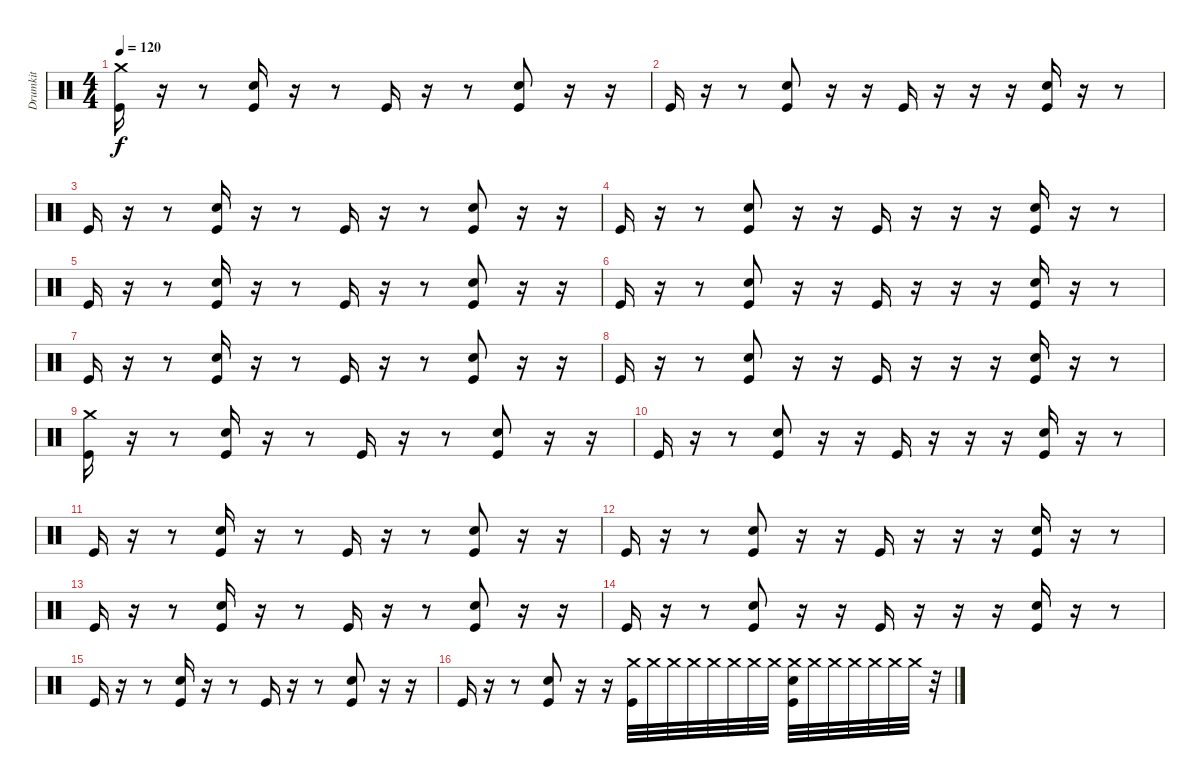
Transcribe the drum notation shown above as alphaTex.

\track ("Drumkit" "Drumkit") {instrument percussion}
\staff {score}
\articulation defaults
\ts (4 4)
\tempo 120
\clef neutral
\ks c
("Crash medium (hit)" "Kick (hit)").16{dy f} r.16 r.8 ("Kick (hit)" "Snare (hit) 2").16 r.16 r.8 "Kick (hit)".16 r.16 r.8 ("Kick (hit)" "Snare (hit) 2").8 r.16 r.16 |
"Kick (hit)".16 r.16 r.8 ("Kick (hit)" "Snare (hit) 2").8 r.16 r.16 "Kick (hit)".16 r.16 r.16 r.16 ("Kick (hit)" "Snare (hit) 2").16 r.16 r.8 |
"Kick (hit)".16 r.16 r.8 ("Kick (hit)" "Snare (hit) 2").16 r.16 r.8 "Kick (hit)".16 r.16 r.8 ("Kick (hit)" "Snare (hit) 2").8 r.16 r.16 |
"Kick (hit)".16 r.16 r.8 ("Kick (hit)" "Snare (hit) 2").8 r.16 r.16 "Kick (hit)".16 r.16 r.16 r.16 ("Kick (hit)" "Snare (hit) 2").16 r.16 r.8 |
"Kick (hit)".16 r.16 r.8 ("Kick (hit)" "Snare (hit) 2").16 r.16 r.8 "Kick (hit)".16 r.16 r.8 ("Kick (hit)" "Snare (hit) 2").8 r.16 r.16 |
"Kick (hit)".16 r.16 r.8 ("Kick (hit)" "Snare (hit) 2").8 r.16 r.16 "Kick (hit)".16 r.16 r.16 r.16 ("Kick (hit)" "Snare (hit) 2").16 r.16 r.8 |
"Kick (hit)".16 r.16 r.8 ("Kick (hit)" "Snare (hit) 2").16 r.16 r.8 "Kick (hit)".16 r.16 r.8 ("Kick (hit)" "Snare (hit) 2").8 r.16 r.16 |
"Kick (hit)".16 r.16 r.8 ("Kick (hit)" "Snare (hit) 2").8 r.16 r.16 "Kick (hit)".16 r.16 r.16 r.16 ("Kick (hit)" "Snare (hit) 2").16 r.16 r.8 |
("Kick (hit)" "Crash medium (hit)").16 r.16 r.8 ("Kick (hit)" "Snare (hit) 2").16 r.16 r.8 "Kick (hit)".16 r.16 r.8 ("Kick (hit)" "Snare (hit) 2").8 r.16 r.16 |
"Kick (hit)".16 r.16 r.8 ("Kick (hit)" "Snare (hit) 2").8 r.16 r.16 "Kick (hit)".16 r.16 r.16 r.16 ("Kick (hit)" "Snare (hit) 2").16 r.16 r.8 |
"Kick (hit)".16 r.16 r.8 ("Kick (hit)" "Snare (hit) 2").16 r.16 r.8 "Kick (hit)".16 r.16 r.8 ("Kick (hit)" "Snare (hit) 2").8 r.16 r.16 |
"Kick (hit)".16 r.16 r.8 ("Kick (hit)" "Snare (hit) 2").8 r.16 r.16 "Kick (hit)".16 r.16 r.16 r.16 ("Kick (hit)" "Snare (hit) 2").16 r.16 r.8 |
"Kick (hit)".16 r.16 r.8 ("Kick (hit)" "Snare (hit) 2").16 r.16 r.8 "Kick (hit)".16 r.16 r.8 ("Kick (hit)" "Snare (hit) 2").8 r.16 r.16 |
"Kick (hit)".16 r.16 r.8 ("Kick (hit)" "Snare (hit) 2").8 r.16 r.16 "Kick (hit)".16 r.16 r.16 r.16 ("Kick (hit)" "Snare (hit) 2").16 r.16 r.8 |
"Kick (hit)".16 r.16 r.8 ("Kick (hit)" "Snare (hit) 2").16 r.16 r.8 "Kick (hit)".16 r.16 r.8 ("Kick (hit)" "Snare (hit) 2").8 r.16 r.16 |
"Kick (hit)".16 r.16 r.8 ("Kick (hit)" "Snare (hit) 2").8 r.16 r.16 ("Kick (hit)" "Crash medium (hit)").32 "Crash medium (hit)".32 "Crash medium (hit)".32 "Crash medium (hit)".32 "Crash medium (hit)".32 "Crash medium (hit)".32 "Crash medium (hit)".32 "Crash medium (hit)".32 ("Kick (hit)" "Crash medium (hit)" "Snare (hit) 2").32 "Crash medium (hit)".32 "Crash medium (hit)".32 "Crash medium (hit)".32 "Crash medium (hit)".32 "Crash medium (hit)".32 "Crash medium (hit)".32 r.32
